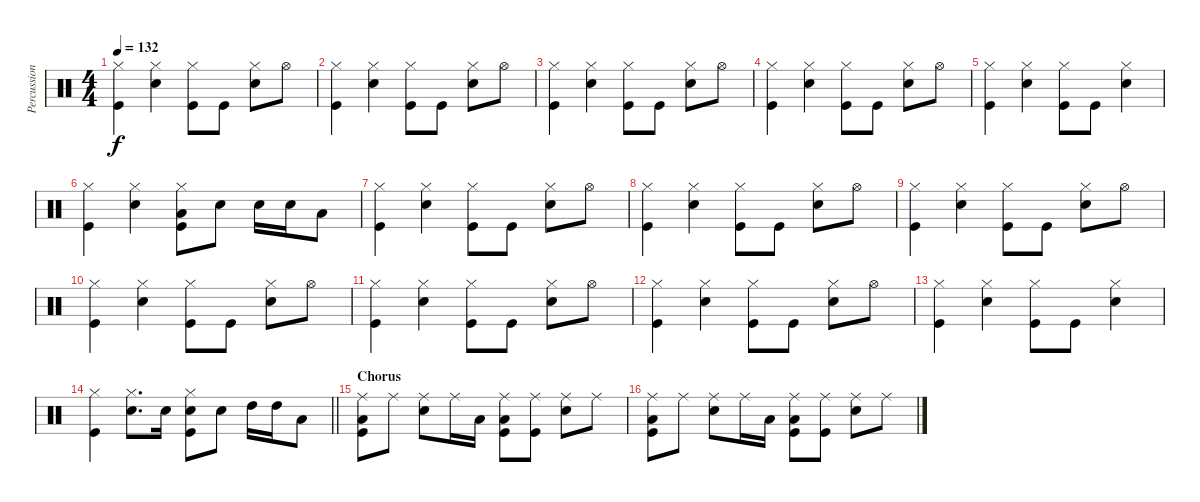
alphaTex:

\track ("Percussion" "Percussion") {instrument percussion}
\staff {score}
\articulation defaults
\ts (4 4)
\tempo 132
\clef neutral
\ks c
("Hi-Hat (closed)" "Kick (hit)").4{dy f} ("Hi-Hat (closed)" "Snare (hit) 2").4 ("Hi-Hat (closed)" "Kick (hit)").8 "Kick (hit)".8 ("Hi-Hat (closed)" "Snare (hit) 2").8 "Hi-Hat (open)".8 |
("Hi-Hat (closed)" "Kick (hit)").4 ("Hi-Hat (closed)" "Snare (hit) 2").4 ("Hi-Hat (closed)" "Kick (hit)").8 "Kick (hit)".8 ("Hi-Hat (closed)" "Snare (hit) 2").8 "Hi-Hat (open)".8 |
("Hi-Hat (closed)" "Kick (hit)").4 ("Hi-Hat (closed)" "Snare (hit) 2").4 ("Hi-Hat (closed)" "Kick (hit)").8 "Kick (hit)".8 ("Hi-Hat (closed)" "Snare (hit) 2").8 "Hi-Hat (open)".8 |
("Hi-Hat (closed)" "Kick (hit)").4 ("Hi-Hat (closed)" "Snare (hit) 2").4 ("Hi-Hat (closed)" "Kick (hit)").8 "Kick (hit)".8 ("Hi-Hat (closed)" "Snare (hit) 2").8 "Hi-Hat (open)".8 |
("Hi-Hat (closed)" "Kick (hit)").4 ("Hi-Hat (closed)" "Snare (hit) 2").4 ("Hi-Hat (closed)" "Kick (hit)").8 "Kick (hit)".8 ("Hi-Hat (closed)" "Snare (hit) 2").4 |
("Hi-Hat (closed)" "Kick (hit)").4 ("Hi-Hat (closed)" "Snare (hit) 2").4 ("Hi-Hat (closed)" "Low Tom (hit)" "Kick (hit)").8 "Snare (hit) 2".8 "Snare (hit) 2".16 "Snare (hit) 2".16 "Low Tom (hit)".8 |
("Hi-Hat (closed)" "Kick (hit)").4 ("Hi-Hat (closed)" "Snare (hit) 2").4 ("Hi-Hat (closed)" "Kick (hit)").8 "Kick (hit)".8 ("Hi-Hat (closed)" "Snare (hit) 2").8 "Hi-Hat (open)".8 |
("Hi-Hat (closed)" "Kick (hit)").4 ("Hi-Hat (closed)" "Snare (hit) 2").4 ("Hi-Hat (closed)" "Kick (hit)").8 "Kick (hit)".8 ("Hi-Hat (closed)" "Snare (hit) 2").8 "Hi-Hat (open)".8 |
("Hi-Hat (closed)" "Kick (hit)").4 ("Hi-Hat (closed)" "Snare (hit) 2").4 ("Hi-Hat (closed)" "Kick (hit)").8 "Kick (hit)".8 ("Hi-Hat (closed)" "Snare (hit) 2").8 "Hi-Hat (open)".8 |
("Hi-Hat (closed)" "Kick (hit)").4 ("Hi-Hat (closed)" "Snare (hit) 2").4 ("Hi-Hat (closed)" "Kick (hit)").8 "Kick (hit)".8 ("Hi-Hat (closed)" "Snare (hit) 2").8 "Hi-Hat (open)".8 |
("Hi-Hat (closed)" "Kick (hit)").4 ("Hi-Hat (closed)" "Snare (hit) 2").4 ("Hi-Hat (closed)" "Kick (hit)").8 "Kick (hit)".8 ("Hi-Hat (closed)" "Snare (hit) 2").8 "Hi-Hat (open)".8 |
("Hi-Hat (closed)" "Kick (hit)").4 ("Hi-Hat (closed)" "Snare (hit) 2").4 ("Hi-Hat (closed)" "Kick (hit)").8 "Kick (hit)".8 ("Hi-Hat (closed)" "Snare (hit) 2").8 "Hi-Hat (open)".8 |
("Hi-Hat (closed)" "Kick (hit)").4 ("Hi-Hat (closed)" "Snare (hit) 2").4 ("Hi-Hat (closed)" "Kick (hit)").8 "Kick (hit)".8 ("Hi-Hat (closed)" "Snare (hit) 2").4 |
\barLineRight lightlight
("Hi-Hat (closed)" "Kick (hit)").4 ("Hi-Hat (closed)" "Snare (hit) 2").8{d} "Snare (hit) 2".16 ("Hi-Hat (closed)" "Snare (hit) 2" "Kick (hit)").8 "Snare (hit) 2".8 "High Tom (hit)".16 "High Tom (hit)".16 "Low Tom (hit)".8 |
\section ("" "Chorus")
("Ride (middle)" "Low Tom (hit)" "Kick (hit)").8 "Ride (middle)".8 ("Ride (middle)" "Snare (hit) 2").8 "Ride (middle)".16 "Low Tom (hit)".16 ("Ride (middle)" "Low Tom (hit)" "Kick (hit)").8 ("Ride (middle)" "Kick (hit)").8 ("Ride (middle)" "Snare (hit) 2").8 "Ride (middle)".8 |
("Ride (middle)" "Low Tom (hit)" "Kick (hit)").8 "Ride (middle)".8 ("Ride (middle)" "Snare (hit) 2").8 "Ride (middle)".16 "Low Tom (hit)".16 ("Ride (middle)" "Low Tom (hit)" "Kick (hit)").8 ("Ride (middle)" "Kick (hit)").8 ("Ride (middle)" "Snare (hit) 2").8 "Ride (middle)".8
